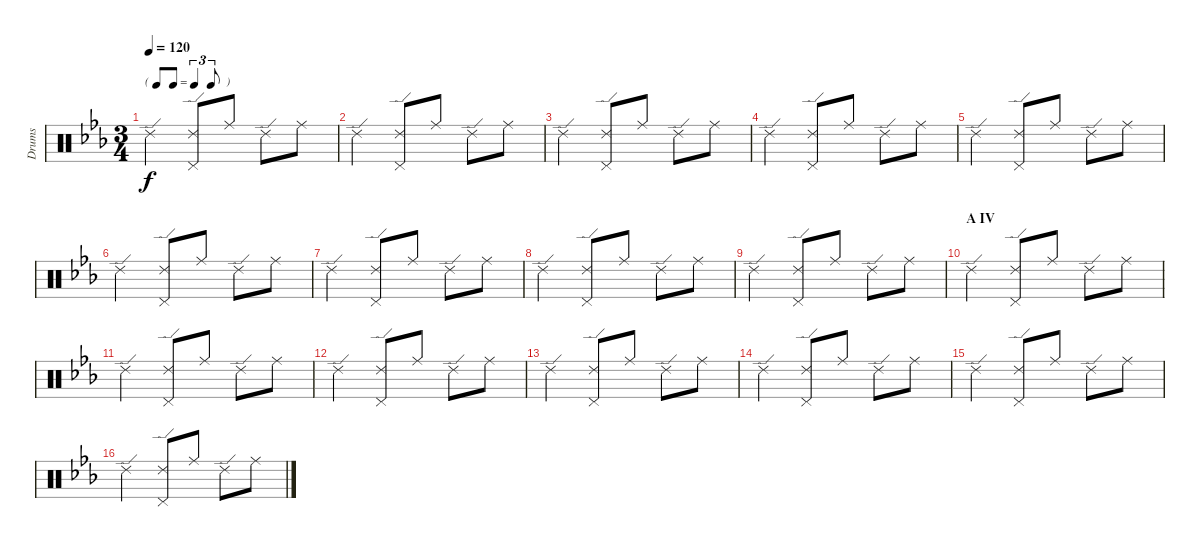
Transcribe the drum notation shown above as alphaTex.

\track ("Drums" "Drums") {instrument percussion}
\staff {score}
\articulation defaults
\ts (3 4)
\tf triplet8th
\tempo 120
\clef neutral
\ks cminor "Ride (edge) 2".4{dy f}
("Ride (edge) 2" "Pedal Hi-Hat (hit)").8 "Ride (middle)".8 "Ride (edge) 2".8 "Ride (middle)".8 |
"Ride (edge) 2".4 ("Ride (edge) 2" "Pedal Hi-Hat (hit)").8 "Ride (middle)".8 "Ride (edge) 2".8 "Ride (middle)".8 |
"Ride (edge) 2".4 ("Ride (edge) 2" "Pedal Hi-Hat (hit)").8 "Ride (middle)".8 "Ride (edge) 2".8 "Ride (middle)".8 |
"Ride (edge) 2".4 ("Ride (edge) 2" "Pedal Hi-Hat (hit)").8 "Ride (middle)".8 "Ride (edge) 2".8 "Ride (middle)".8 |
"Ride (edge) 2".4 ("Ride (edge) 2" "Pedal Hi-Hat (hit)").8 "Ride (middle)".8 "Ride (edge) 2".8 "Ride (middle)".8 |
"Ride (edge) 2".4 ("Ride (edge) 2" "Pedal Hi-Hat (hit)").8 "Ride (middle)".8 "Ride (edge) 2".8 "Ride (middle)".8 |
"Ride (edge) 2".4 ("Ride (edge) 2" "Pedal Hi-Hat (hit)").8 "Ride (middle)".8 "Ride (edge) 2".8 "Ride (middle)".8 |
"Ride (edge) 2".4 ("Ride (edge) 2" "Pedal Hi-Hat (hit)").8 "Ride (middle)".8 "Ride (edge) 2".8 "Ride (middle)".8 |
"Ride (edge) 2".4 ("Ride (edge) 2" "Pedal Hi-Hat (hit)").8 "Ride (middle)".8 "Ride (edge) 2".8 "Ride (middle)".8 |
\section ("" "A IV")
"Ride (edge) 2".4 ("Ride (edge) 2" "Pedal Hi-Hat (hit)").8 "Ride (middle)".8 "Ride (edge) 2".8 "Ride (middle)".8 |
"Ride (edge) 2".4 ("Ride (edge) 2" "Pedal Hi-Hat (hit)").8 "Ride (middle)".8 "Ride (edge) 2".8 "Ride (middle)".8 |
"Ride (edge) 2".4 ("Ride (edge) 2" "Pedal Hi-Hat (hit)").8 "Ride (middle)".8 "Ride (edge) 2".8 "Ride (middle)".8 |
"Ride (edge) 2".4 ("Ride (edge) 2" "Pedal Hi-Hat (hit)").8 "Ride (middle)".8 "Ride (edge) 2".8 "Ride (middle)".8 |
"Ride (edge) 2".4 ("Ride (edge) 2" "Pedal Hi-Hat (hit)").8 "Ride (middle)".8 "Ride (edge) 2".8 "Ride (middle)".8 |
"Ride (edge) 2".4 ("Ride (edge) 2" "Pedal Hi-Hat (hit)").8 "Ride (middle)".8 "Ride (edge) 2".8 "Ride (middle)".8 |
"Ride (edge) 2".4 ("Ride (edge) 2" "Pedal Hi-Hat (hit)").8 "Ride (middle)".8 "Ride (edge) 2".8 "Ride (middle)".8
